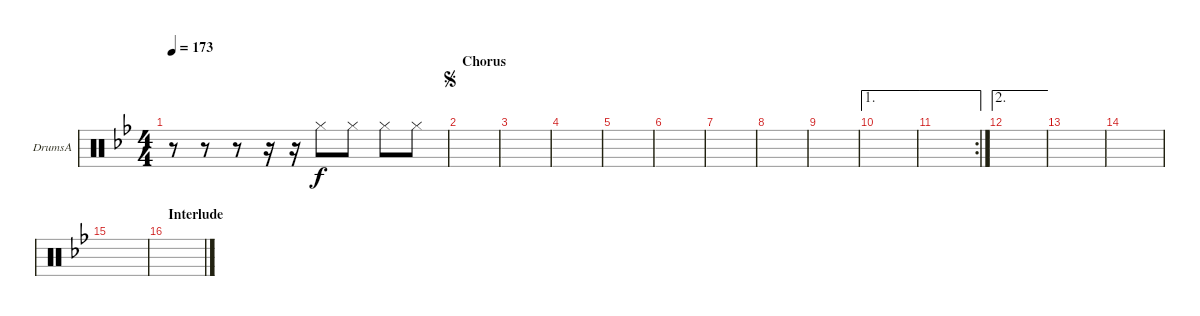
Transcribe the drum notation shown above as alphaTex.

\defaultSystemsLayout 4
\bracketExtendMode groupsimilarinstruments
\firstSystemTrackNameOrientation horizontal
\otherSystemsTrackNameOrientation horizontal
\track ("Drumkit" "DrumsA") {instrument percussion}
\staff {score}
\articulation defaults
\ts (4 4)
\tempo 173
\clef neutral
\ks bb
r.8{dy f} r.8 r.8 r.16 r.16 "Hi-Hat (closed)".8 "Hi-Hat (closed)".8 "Hi-Hat (closed)".8 "Hi-Hat (closed)".8 |
\section ("" "Chorus")
\jump segno
|
|
|
|
|
|
|
|
\ae 1
|
\ae 1
\rc 2
|
\ae 2
|
|
|
|
\section ("" "Interlude")
